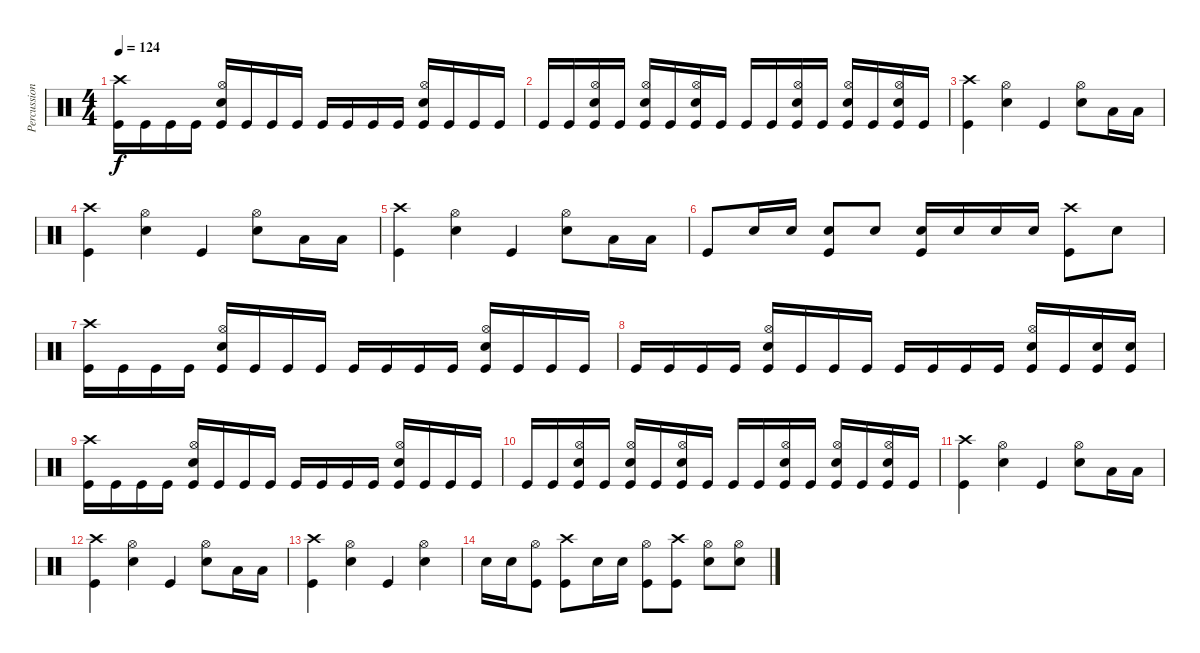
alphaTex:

\track ("Percussion" "Percussion") {instrument percussion}
\staff {score}
\articulation defaults
\ts (4 4)
\tempo 124
\clef neutral
\ks c
("Crash high (hit)" "Kick (hit)").16{dy f} "Kick (hit)".16 "Kick (hit)".16 "Kick (hit)".16 ("Hi-Hat (open)" "Snare (hit) 2" "Kick (hit)").16 "Kick (hit)".16 "Kick (hit)".16 "Kick (hit)".16 "Kick (hit)".16 "Kick (hit)".16 "Kick (hit)".16 "Kick (hit)".16 ("Hi-Hat (open)" "Snare (hit) 2" "Kick (hit)").16 "Kick (hit)".16 "Kick (hit)".16 "Kick (hit)".16 |
"Kick (hit)".16 "Kick (hit)".16 ("Hi-Hat (open)" "Snare (hit) 2" "Kick (hit)").16 "Kick (hit)".16 ("Hi-Hat (open)" "Snare (hit) 2" "Kick (hit)").16 "Kick (hit)".16 ("Hi-Hat (open)" "Snare (hit) 2" "Kick (hit)").16 "Kick (hit)".16 "Kick (hit)".16 "Kick (hit)".16 ("Hi-Hat (open)" "Snare (hit) 2" "Kick (hit)").16 "Kick (hit)".16 ("Hi-Hat (open)" "Snare (hit) 2" "Kick (hit)").16 "Kick (hit)".16 ("Hi-Hat (open)" "Snare (hit) 2" "Kick (hit)").16 "Kick (hit)".16 |
("Crash high (hit)" "Kick (hit)").4 ("Hi-Hat (open)" "Snare (hit) 2").4 "Kick (hit)".4 ("Hi-Hat (open)" "Snare (hit) 2").8 "Low Tom (hit)".16 "Low Tom (hit)".16 |
("Crash high (hit)" "Kick (hit)").4 ("Hi-Hat (open)" "Snare (hit) 2").4 "Kick (hit)".4 ("Hi-Hat (open)" "Snare (hit) 2").8 "Low Tom (hit)".16 "Low Tom (hit)".16 |
("Crash high (hit)" "Kick (hit)").4 ("Hi-Hat (open)" "Snare (hit) 2").4 "Kick (hit)".4 ("Hi-Hat (open)" "Snare (hit) 2").8 "Low Tom (hit)".16 "Low Tom (hit)".16 |
"Kick (hit)".8 "Snare (hit) 2".16 "Snare (hit) 2".16 ("Snare (hit) 2" "Kick (hit)").8 "Snare (hit) 2".8 ("Snare (hit) 2" "Kick (hit)").16 "Snare (hit) 2".16 "Snare (hit) 2".16 "Snare (hit) 2".16 ("Crash high (hit)" "Kick (hit)").8 "Snare (hit) 2".8 |
("Crash high (hit)" "Kick (hit)").16 "Kick (hit)".16 "Kick (hit)".16 "Kick (hit)".16 ("Hi-Hat (open)" "Snare (hit) 2" "Kick (hit)").16 "Kick (hit)".16 "Kick (hit)".16 "Kick (hit)".16 "Kick (hit)".16 "Kick (hit)".16 "Kick (hit)".16 "Kick (hit)".16 ("Hi-Hat (open)" "Snare (hit) 2" "Kick (hit)").16 "Kick (hit)".16 "Kick (hit)".16 "Kick (hit)".16 |
"Kick (hit)".16 "Kick (hit)".16 "Kick (hit)".16 "Kick (hit)".16 ("Hi-Hat (open)" "Snare (hit) 2" "Kick (hit)").16 "Kick (hit)".16 "Kick (hit)".16 "Kick (hit)".16 "Kick (hit)".16 "Kick (hit)".16 "Kick (hit)".16 "Kick (hit)".16 ("Hi-Hat (open)" "Snare (hit) 2" "Kick (hit)").16 "Kick (hit)".16 ("Snare (hit) 2" "Kick (hit)").16 ("Snare (hit) 2" "Kick (hit)").16 |
("Crash high (hit)" "Kick (hit)").16 "Kick (hit)".16 "Kick (hit)".16 "Kick (hit)".16 ("Hi-Hat (open)" "Snare (hit) 2" "Kick (hit)").16 "Kick (hit)".16 "Kick (hit)".16 "Kick (hit)".16 "Kick (hit)".16 "Kick (hit)".16 "Kick (hit)".16 "Kick (hit)".16 ("Hi-Hat (open)" "Snare (hit) 2" "Kick (hit)").16 "Kick (hit)".16 "Kick (hit)".16 "Kick (hit)".16 |
"Kick (hit)".16 "Kick (hit)".16 ("Hi-Hat (open)" "Snare (hit) 2" "Kick (hit)").16 "Kick (hit)".16 ("Hi-Hat (open)" "Snare (hit) 2" "Kick (hit)").16 "Kick (hit)".16 ("Hi-Hat (open)" "Snare (hit) 2" "Kick (hit)").16 "Kick (hit)".16 "Kick (hit)".16 "Kick (hit)".16 ("Hi-Hat (open)" "Snare (hit) 2" "Kick (hit)").16 "Kick (hit)".16 ("Hi-Hat (open)" "Snare (hit) 2" "Kick (hit)").16 "Kick (hit)".16 ("Hi-Hat (open)" "Snare (hit) 2" "Kick (hit)").16 "Kick (hit)".16 |
("Crash high (hit)" "Kick (hit)").4 ("Hi-Hat (open)" "Snare (hit) 2").4 "Kick (hit)".4 ("Hi-Hat (open)" "Snare (hit) 2").8 "Low Tom (hit)".16 "Low Tom (hit)".16 |
("Crash high (hit)" "Kick (hit)").4 ("Hi-Hat (open)" "Snare (hit) 2").4 "Kick (hit)".4 ("Hi-Hat (open)" "Snare (hit) 2").8 "Low Tom (hit)".16 "Low Tom (hit)".16 |
("Crash high (hit)" "Kick (hit)").4 ("Hi-Hat (open)" "Snare (hit) 2").4 "Kick (hit)".4 ("Hi-Hat (open)" "Snare (hit) 2").4 |
"Snare (hit) 2".16 "Snare (hit) 2".16 ("Hi-Hat (open)" "Kick (hit)").8 ("Crash high (hit)" "Kick (hit)").8 "Snare (hit) 2".16 "Snare (hit) 2".16 ("Hi-Hat (open)" "Kick (hit)").8 ("Crash high (hit)" "Kick (hit)").8 ("Hi-Hat (open)" "Snare (hit) 2").8 ("Hi-Hat (open)" "Snare (hit) 2").8
